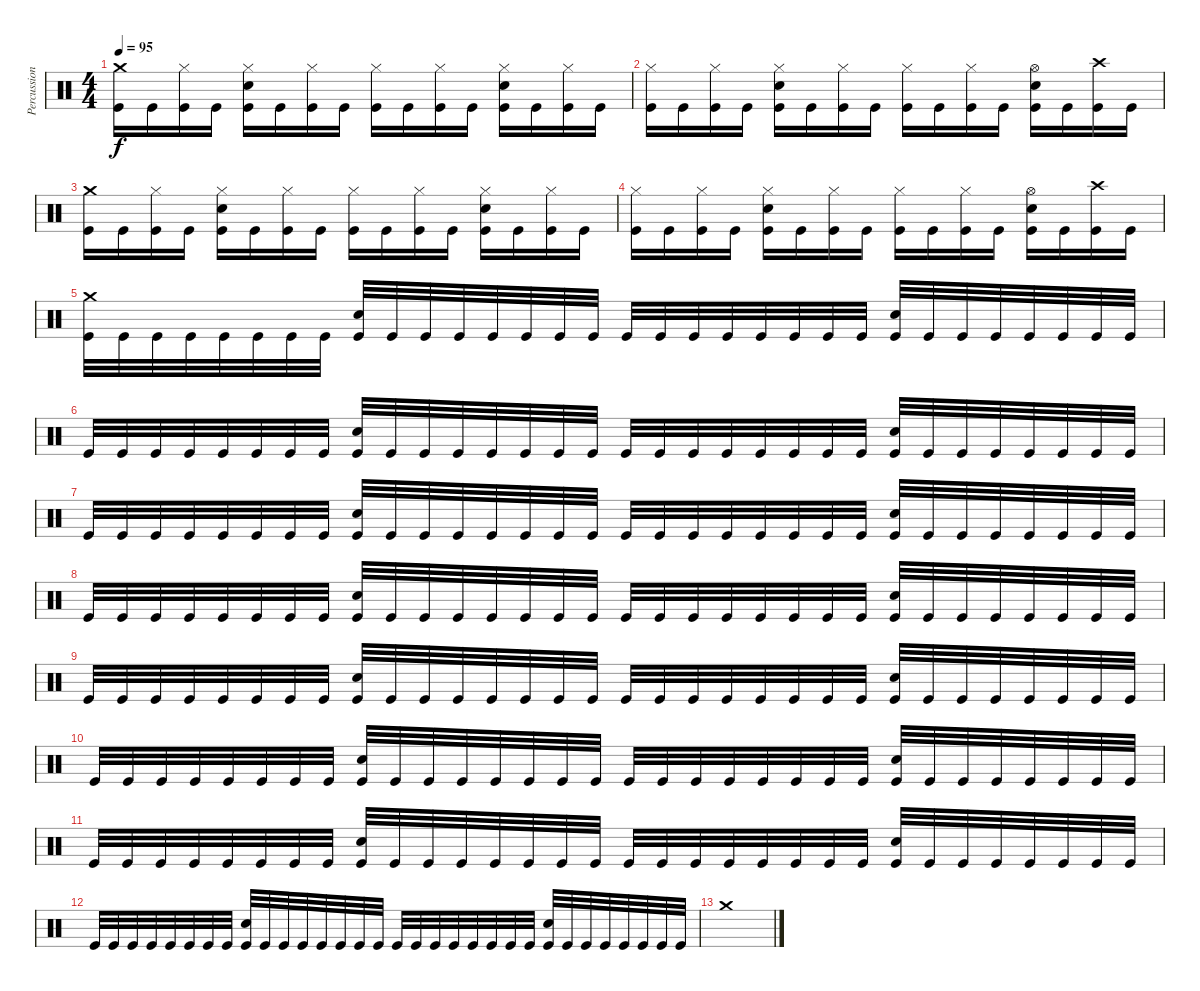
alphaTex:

\track ("Percussion" "Percussion") {instrument percussion}
\staff {score}
\articulation defaults
\ts (4 4)
\tempo 95
\clef neutral
\ks c
("Crash medium (hit)" "Kick (hit)").16{dy f} "Kick (hit)".16 ("Hi-Hat (closed)" "Kick (hit)").16 "Kick (hit)".16 ("Hi-Hat (closed)" "Electric Snare (hit)" "Kick (hit)").16 "Kick (hit)".16 ("Hi-Hat (closed)" "Kick (hit)").16 "Kick (hit)".16 ("Hi-Hat (closed)" "Kick (hit)").16 "Kick (hit)".16 ("Hi-Hat (closed)" "Kick (hit)").16 "Kick (hit)".16 ("Hi-Hat (closed)" "Electric Snare (hit)" "Kick (hit)").16 "Kick (hit)".16 ("Hi-Hat (closed)" "Kick (hit)").16 "Kick (hit)".16 |
("Hi-Hat (closed)" "Kick (hit)").16 "Kick (hit)".16 ("Hi-Hat (closed)" "Kick (hit)").16 "Kick (hit)".16 ("Hi-Hat (closed)" "Electric Snare (hit)" "Kick (hit)").16 "Kick (hit)".16 ("Hi-Hat (closed)" "Kick (hit)").16 "Kick (hit)".16 ("Hi-Hat (closed)" "Kick (hit)").16 "Kick (hit)".16 ("Hi-Hat (closed)" "Kick (hit)").16 "Kick (hit)".16 ("Hi-Hat (open)" "Electric Snare (hit)" "Kick (hit)").16 "Kick (hit)".16 ("Crash high (hit)" "Kick (hit)").16 "Kick (hit)".16 |
("Crash medium (hit)" "Kick (hit)").16 "Kick (hit)".16 ("Hi-Hat (closed)" "Kick (hit)").16 "Kick (hit)".16 ("Hi-Hat (closed)" "Electric Snare (hit)" "Kick (hit)").16 "Kick (hit)".16 ("Hi-Hat (closed)" "Kick (hit)").16 "Kick (hit)".16 ("Hi-Hat (closed)" "Kick (hit)").16 "Kick (hit)".16 ("Hi-Hat (closed)" "Kick (hit)").16 "Kick (hit)".16 ("Hi-Hat (closed)" "Electric Snare (hit)" "Kick (hit)").16 "Kick (hit)".16 ("Hi-Hat (closed)" "Kick (hit)").16 "Kick (hit)".16 |
("Hi-Hat (closed)" "Kick (hit)").16 "Kick (hit)".16 ("Hi-Hat (closed)" "Kick (hit)").16 "Kick (hit)".16 ("Hi-Hat (closed)" "Electric Snare (hit)" "Kick (hit)").16 "Kick (hit)".16 ("Hi-Hat (closed)" "Kick (hit)").16 "Kick (hit)".16 ("Hi-Hat (closed)" "Kick (hit)").16 "Kick (hit)".16 ("Hi-Hat (closed)" "Kick (hit)").16 "Kick (hit)".16 ("Hi-Hat (open)" "Electric Snare (hit)" "Kick (hit)").16 "Kick (hit)".16 ("Crash high (hit)" "Kick (hit)").16 "Kick (hit)".16 |
("Crash medium (hit)" "Kick (hit)").32 "Kick (hit)".32 "Kick (hit)".32 "Kick (hit)".32 "Kick (hit)".32 "Kick (hit)".32 "Kick (hit)".32 "Kick (hit)".32 ("Electric Snare (hit)" "Kick (hit)").32 "Kick (hit)".32 "Kick (hit)".32 "Kick (hit)".32 "Kick (hit)".32 "Kick (hit)".32 "Kick (hit)".32 "Kick (hit)".32 "Kick (hit)".32 "Kick (hit)".32 "Kick (hit)".32 "Kick (hit)".32 "Kick (hit)".32 "Kick (hit)".32 "Kick (hit)".32 "Kick (hit)".32 ("Electric Snare (hit)" "Kick (hit)").32 "Kick (hit)".32 "Kick (hit)".32 "Kick (hit)".32 "Kick (hit)".32 "Kick (hit)".32 "Kick (hit)".32 "Kick (hit)".32 |
"Kick (hit)".32 "Kick (hit)".32 "Kick (hit)".32 "Kick (hit)".32 "Kick (hit)".32 "Kick (hit)".32 "Kick (hit)".32 "Kick (hit)".32 ("Electric Snare (hit)" "Kick (hit)").32 "Kick (hit)".32 "Kick (hit)".32 "Kick (hit)".32 "Kick (hit)".32 "Kick (hit)".32 "Kick (hit)".32 "Kick (hit)".32 "Kick (hit)".32 "Kick (hit)".32 "Kick (hit)".32 "Kick (hit)".32 "Kick (hit)".32 "Kick (hit)".32 "Kick (hit)".32 "Kick (hit)".32 ("Electric Snare (hit)" "Kick (hit)").32 "Kick (hit)".32 "Kick (hit)".32 "Kick (hit)".32 "Kick (hit)".32 "Kick (hit)".32 "Kick (hit)".32 "Kick (hit)".32 |
"Kick (hit)".32 "Kick (hit)".32 "Kick (hit)".32 "Kick (hit)".32 "Kick (hit)".32 "Kick (hit)".32 "Kick (hit)".32 "Kick (hit)".32 ("Electric Snare (hit)" "Kick (hit)").32 "Kick (hit)".32 "Kick (hit)".32 "Kick (hit)".32 "Kick (hit)".32 "Kick (hit)".32 "Kick (hit)".32 "Kick (hit)".32 "Kick (hit)".32 "Kick (hit)".32 "Kick (hit)".32 "Kick (hit)".32 "Kick (hit)".32 "Kick (hit)".32 "Kick (hit)".32 "Kick (hit)".32 ("Electric Snare (hit)" "Kick (hit)").32 "Kick (hit)".32 "Kick (hit)".32 "Kick (hit)".32 "Kick (hit)".32 "Kick (hit)".32 "Kick (hit)".32 "Kick (hit)".32 |
"Kick (hit)".32 "Kick (hit)".32 "Kick (hit)".32 "Kick (hit)".32 "Kick (hit)".32 "Kick (hit)".32 "Kick (hit)".32 "Kick (hit)".32 ("Electric Snare (hit)" "Kick (hit)").32 "Kick (hit)".32 "Kick (hit)".32 "Kick (hit)".32 "Kick (hit)".32 "Kick (hit)".32 "Kick (hit)".32 "Kick (hit)".32 "Kick (hit)".32 "Kick (hit)".32 "Kick (hit)".32 "Kick (hit)".32 "Kick (hit)".32 "Kick (hit)".32 "Kick (hit)".32 "Kick (hit)".32 ("Electric Snare (hit)" "Kick (hit)").32 "Kick (hit)".32 "Kick (hit)".32 "Kick (hit)".32 "Kick (hit)".32 "Kick (hit)".32 "Kick (hit)".32 "Kick (hit)".32 |
"Kick (hit)".32 "Kick (hit)".32 "Kick (hit)".32 "Kick (hit)".32 "Kick (hit)".32 "Kick (hit)".32 "Kick (hit)".32 "Kick (hit)".32 ("Electric Snare (hit)" "Kick (hit)").32 "Kick (hit)".32 "Kick (hit)".32 "Kick (hit)".32 "Kick (hit)".32 "Kick (hit)".32 "Kick (hit)".32 "Kick (hit)".32 "Kick (hit)".32 "Kick (hit)".32 "Kick (hit)".32 "Kick (hit)".32 "Kick (hit)".32 "Kick (hit)".32 "Kick (hit)".32 "Kick (hit)".32 ("Electric Snare (hit)" "Kick (hit)").32 "Kick (hit)".32 "Kick (hit)".32 "Kick (hit)".32 "Kick (hit)".32 "Kick (hit)".32 "Kick (hit)".32 "Kick (hit)".32 |
"Kick (hit)".32 "Kick (hit)".32 "Kick (hit)".32 "Kick (hit)".32 "Kick (hit)".32 "Kick (hit)".32 "Kick (hit)".32 "Kick (hit)".32 ("Electric Snare (hit)" "Kick (hit)").32 "Kick (hit)".32 "Kick (hit)".32 "Kick (hit)".32 "Kick (hit)".32 "Kick (hit)".32 "Kick (hit)".32 "Kick (hit)".32 "Kick (hit)".32 "Kick (hit)".32 "Kick (hit)".32 "Kick (hit)".32 "Kick (hit)".32 "Kick (hit)".32 "Kick (hit)".32 "Kick (hit)".32 ("Electric Snare (hit)" "Kick (hit)").32 "Kick (hit)".32 "Kick (hit)".32 "Kick (hit)".32 "Kick (hit)".32 "Kick (hit)".32 "Kick (hit)".32 "Kick (hit)".32 |
"Kick (hit)".32 "Kick (hit)".32 "Kick (hit)".32 "Kick (hit)".32 "Kick (hit)".32 "Kick (hit)".32 "Kick (hit)".32 "Kick (hit)".32 ("Electric Snare (hit)" "Kick (hit)").32 "Kick (hit)".32 "Kick (hit)".32 "Kick (hit)".32 "Kick (hit)".32 "Kick (hit)".32 "Kick (hit)".32 "Kick (hit)".32 "Kick (hit)".32 "Kick (hit)".32 "Kick (hit)".32 "Kick (hit)".32 "Kick (hit)".32 "Kick (hit)".32 "Kick (hit)".32 "Kick (hit)".32 ("Electric Snare (hit)" "Kick (hit)").32 "Kick (hit)".32 "Kick (hit)".32 "Kick (hit)".32 "Kick (hit)".32 "Kick (hit)".32 "Kick (hit)".32 "Kick (hit)".32 |
"Kick (hit)".32 "Kick (hit)".32 "Kick (hit)".32 "Kick (hit)".32 "Kick (hit)".32 "Kick (hit)".32 "Kick (hit)".32 "Kick (hit)".32 ("Electric Snare (hit)" "Kick (hit)").32 "Kick (hit)".32 "Kick (hit)".32 "Kick (hit)".32 "Kick (hit)".32 "Kick (hit)".32 "Kick (hit)".32 "Kick (hit)".32 "Kick (hit)".32 "Kick (hit)".32 "Kick (hit)".32 "Kick (hit)".32 "Kick (hit)".32 "Kick (hit)".32 "Kick (hit)".32 "Kick (hit)".32 ("Electric Snare (hit)" "Kick (hit)").32 "Kick (hit)".32 "Kick (hit)".32 "Kick (hit)".32 "Kick (hit)".32 "Kick (hit)".32 "Kick (hit)".32 "Kick (hit)".32 |
"Crash medium (hit)".1
